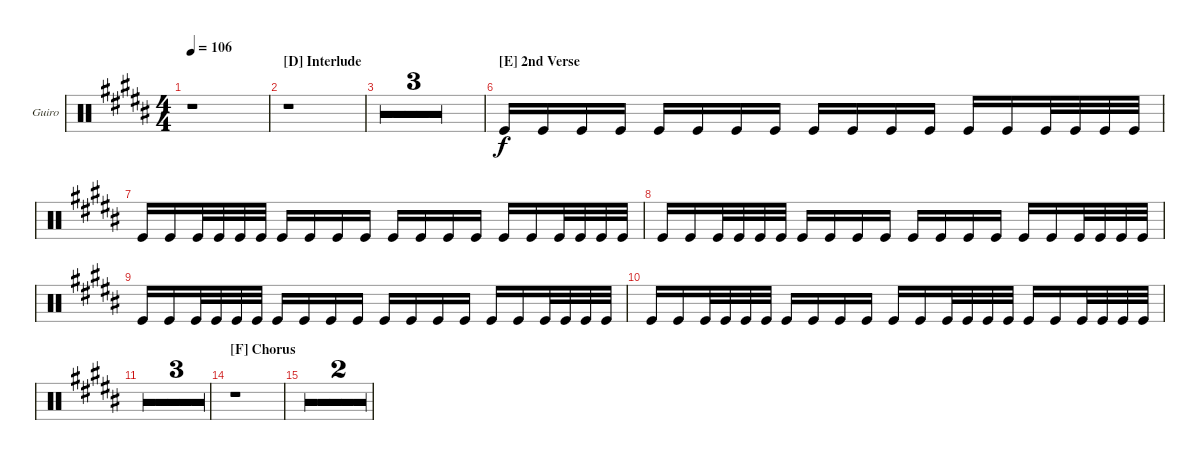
\defaultSystemsLayout 4
\bracketExtendMode groupsimilarinstruments
\firstSystemTrackNameOrientation horizontal
\otherSystemsTrackNameOrientation horizontal
\track ("Guiro" "Guiro") {multiBarRest instrument percussion}
\staff {score}
\articulation defaults
\ts (4 4)
\tempo 106
\clef neutral
\ks b
r.1{dy f} |
\section ("D" "Interlude")
r.1 |
r.1 |
r.1 |
r.1 |
\section ("E" "2nd Verse")
"Kick (hit)".16 "Kick (hit)".16 "Kick (hit)".16 "Kick (hit)".16 "Kick (hit)".16 "Kick (hit)".16 "Kick (hit)".16 "Kick (hit)".16 "Kick (hit)".16 "Kick (hit)".16 "Kick (hit)".16 "Kick (hit)".16 "Kick (hit)".16 "Kick (hit)".16 "Kick (hit)".32 "Kick (hit)".32 "Kick (hit)".32 "Kick (hit)".32 |
"Kick (hit)".16 "Kick (hit)".16 "Kick (hit)".32 "Kick (hit)".32 "Kick (hit)".32 "Kick (hit)".32 "Kick (hit)".16 "Kick (hit)".16 "Kick (hit)".16 "Kick (hit)".16 "Kick (hit)".16 "Kick (hit)".16 "Kick (hit)".16 "Kick (hit)".16 "Kick (hit)".16 "Kick (hit)".16 "Kick (hit)".32 "Kick (hit)".32 "Kick (hit)".32 "Kick (hit)".32 |
"Kick (hit)".16 "Kick (hit)".16 "Kick (hit)".32 "Kick (hit)".32 "Kick (hit)".32 "Kick (hit)".32 "Kick (hit)".16 "Kick (hit)".16 "Kick (hit)".16 "Kick (hit)".16 "Kick (hit)".16 "Kick (hit)".16 "Kick (hit)".16 "Kick (hit)".16 "Kick (hit)".16 "Kick (hit)".16 "Kick (hit)".32 "Kick (hit)".32 "Kick (hit)".32 "Kick (hit)".32 |
"Kick (hit)".16 "Kick (hit)".16 "Kick (hit)".32 "Kick (hit)".32 "Kick (hit)".32 "Kick (hit)".32 "Kick (hit)".16 "Kick (hit)".16 "Kick (hit)".16 "Kick (hit)".16 "Kick (hit)".16 "Kick (hit)".16 "Kick (hit)".16 "Kick (hit)".16 "Kick (hit)".16 "Kick (hit)".16 "Kick (hit)".32 "Kick (hit)".32 "Kick (hit)".32 "Kick (hit)".32 |
"Kick (hit)".16 "Kick (hit)".16 "Kick (hit)".32 "Kick (hit)".32 "Kick (hit)".32 "Kick (hit)".32 "Kick (hit)".16 "Kick (hit)".16 "Kick (hit)".16 "Kick (hit)".16 "Kick (hit)".16 "Kick (hit)".16 "Kick (hit)".32 "Kick (hit)".32 "Kick (hit)".32 "Kick (hit)".32 "Kick (hit)".16 "Kick (hit)".16 "Kick (hit)".32 "Kick (hit)".32 "Kick (hit)".32 "Kick (hit)".32 |
r.1 |
r.1 |
r.1 |
\section ("F" "Chorus")
r.1 |
r.1 |
r.1
